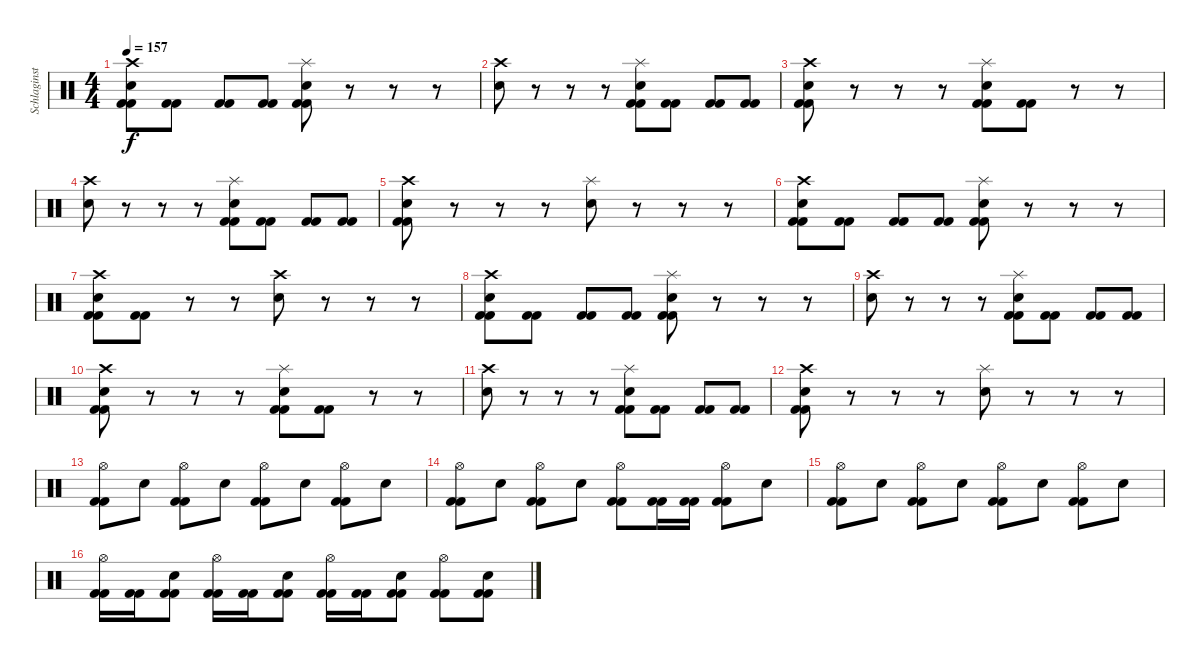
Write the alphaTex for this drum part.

\track ("Schlaginstrumente - Auswahl" "Schlaginst") {instrument percussion}
\staff {score}
\articulation defaults
\ts (4 4)
\tempo 157
\clef neutral
\ks c
("Crash high (hit)" "Electric Snare (hit)" "Kick (hit) 2" "Kick (hit) 2").8{dy f} ("Kick (hit) 2" "Kick (hit) 2").8 ("Kick (hit) 2" "Kick (hit) 2").8 ("Kick (hit) 2" "Kick (hit) 2").8 ("Splash (hit)" "Electric Snare (hit)" "Kick (hit) 2" "Kick (hit) 2").8 r.8 r.8 r.8 |
("Crash high (hit)" "Electric Snare (hit)").8 r.8 r.8 r.8 ("Splash (hit)" "Electric Snare (hit)" "Kick (hit) 2" "Kick (hit) 2").8 ("Kick (hit) 2" "Kick (hit) 2").8 ("Kick (hit) 2" "Kick (hit) 2").8 ("Kick (hit) 2" "Kick (hit) 2").8 |
("Crash high (hit)" "Electric Snare (hit)" "Kick (hit) 2" "Kick (hit) 2").8 r.8 r.8 r.8 ("Splash (hit)" "Electric Snare (hit)" "Kick (hit) 2" "Kick (hit) 2").8 ("Kick (hit) 2" "Kick (hit) 2").8 r.8 r.8 |
("Crash high (hit)" "Electric Snare (hit)").8 r.8 r.8 r.8 ("Splash (hit)" "Electric Snare (hit)" "Kick (hit) 2" "Kick (hit) 2").8 ("Kick (hit) 2" "Kick (hit) 2").8 ("Kick (hit) 2" "Kick (hit) 2").8 ("Kick (hit) 2" "Kick (hit) 2").8 |
("Crash high (hit)" "Electric Snare (hit)" "Kick (hit) 2" "Kick (hit) 2").8 r.8 r.8 r.8 ("Splash (hit)" "Electric Snare (hit)").8 r.8 r.8 r.8 |
("Crash high (hit)" "Electric Snare (hit)" "Kick (hit) 2" "Kick (hit) 2").8 ("Kick (hit) 2" "Kick (hit) 2").8 ("Kick (hit) 2" "Kick (hit) 2").8 ("Kick (hit) 2" "Kick (hit) 2").8 ("Splash (hit)" "Electric Snare (hit)" "Kick (hit) 2" "Kick (hit) 2").8 r.8 r.8 r.8 |
("Crash high (hit)" "Electric Snare (hit)" "Kick (hit) 2" "Kick (hit) 2").8 ("Kick (hit) 2" "Kick (hit) 2").8 r.8 r.8 ("Crash high (hit)" "Electric Snare (hit)").8 r.8 r.8 r.8 |
("Crash high (hit)" "Electric Snare (hit)" "Kick (hit) 2" "Kick (hit) 2").8 ("Kick (hit) 2" "Kick (hit) 2").8 ("Kick (hit) 2" "Kick (hit) 2").8 ("Kick (hit) 2" "Kick (hit) 2").8 ("Splash (hit)" "Electric Snare (hit)" "Kick (hit) 2" "Kick (hit) 2").8 r.8 r.8 r.8 |
("Crash high (hit)" "Electric Snare (hit)").8 r.8 r.8 r.8 ("Splash (hit)" "Electric Snare (hit)" "Kick (hit) 2" "Kick (hit) 2").8 ("Kick (hit) 2" "Kick (hit) 2").8 ("Kick (hit) 2" "Kick (hit) 2").8 ("Kick (hit) 2" "Kick (hit) 2").8 |
("Crash high (hit)" "Electric Snare (hit)" "Kick (hit) 2" "Kick (hit) 2").8 r.8 r.8 r.8 ("Splash (hit)" "Electric Snare (hit)" "Kick (hit) 2" "Kick (hit) 2").8 ("Kick (hit) 2" "Kick (hit) 2").8 r.8 r.8 |
("Crash high (hit)" "Electric Snare (hit)").8 r.8 r.8 r.8 ("Splash (hit)" "Electric Snare (hit)" "Kick (hit) 2" "Kick (hit) 2").8 ("Kick (hit) 2" "Kick (hit) 2").8 ("Kick (hit) 2" "Kick (hit) 2").8 ("Kick (hit) 2" "Kick (hit) 2").8 |
("Crash high (hit)" "Electric Snare (hit)" "Kick (hit) 2" "Kick (hit) 2").8 r.8 r.8 r.8 ("Splash (hit)" "Electric Snare (hit)").8 r.8 r.8 r.8 |
("Hi-Hat (open)" "Kick (hit) 2" "Kick (hit) 2").8 "Electric Snare (hit)".8 ("Hi-Hat (open)" "Kick (hit) 2" "Kick (hit) 2").8 "Electric Snare (hit)".8 ("Hi-Hat (open)" "Kick (hit) 2" "Kick (hit) 2").8 "Electric Snare (hit)".8 ("Hi-Hat (open)" "Kick (hit) 2" "Kick (hit) 2").8 "Electric Snare (hit)".8 |
("Hi-Hat (open)" "Kick (hit) 2" "Kick (hit) 2").8 "Electric Snare (hit)".8 ("Hi-Hat (open)" "Kick (hit) 2" "Kick (hit) 2").8 "Electric Snare (hit)".8 ("Hi-Hat (open)" "Kick (hit) 2" "Kick (hit) 2").8 ("Kick (hit) 2" "Kick (hit) 2").16 ("Kick (hit) 2" "Kick (hit) 2").16 ("Hi-Hat (open)" "Kick (hit) 2" "Kick (hit) 2").8 "Electric Snare (hit)".8 |
("Hi-Hat (open)" "Kick (hit) 2" "Kick (hit) 2").8 "Electric Snare (hit)".8 ("Hi-Hat (open)" "Kick (hit) 2" "Kick (hit) 2").8 "Electric Snare (hit)".8 ("Hi-Hat (open)" "Kick (hit) 2" "Kick (hit) 2").8 "Electric Snare (hit)".8 ("Hi-Hat (open)" "Kick (hit) 2" "Kick (hit) 2").8 "Electric Snare (hit)".8 |
("Hi-Hat (open)" "Kick (hit) 2" "Kick (hit) 2").16 ("Kick (hit) 2" "Kick (hit) 2").16 ("Electric Snare (hit)" "Kick (hit) 2" "Kick (hit) 2").8 ("Hi-Hat (open)" "Kick (hit) 2" "Kick (hit) 2").16 ("Kick (hit) 2" "Kick (hit) 2").16 ("Electric Snare (hit)" "Kick (hit) 2" "Kick (hit) 2").8 ("Hi-Hat (open)" "Kick (hit) 2" "Kick (hit) 2").16 ("Kick (hit) 2" "Kick (hit) 2").16 ("Electric Snare (hit)" "Kick (hit) 2" "Kick (hit) 2").8 ("Hi-Hat (open)" "Kick (hit) 2" "Kick (hit) 2").8 ("Electric Snare (hit)" "Kick (hit) 2" "Kick (hit) 2").8
